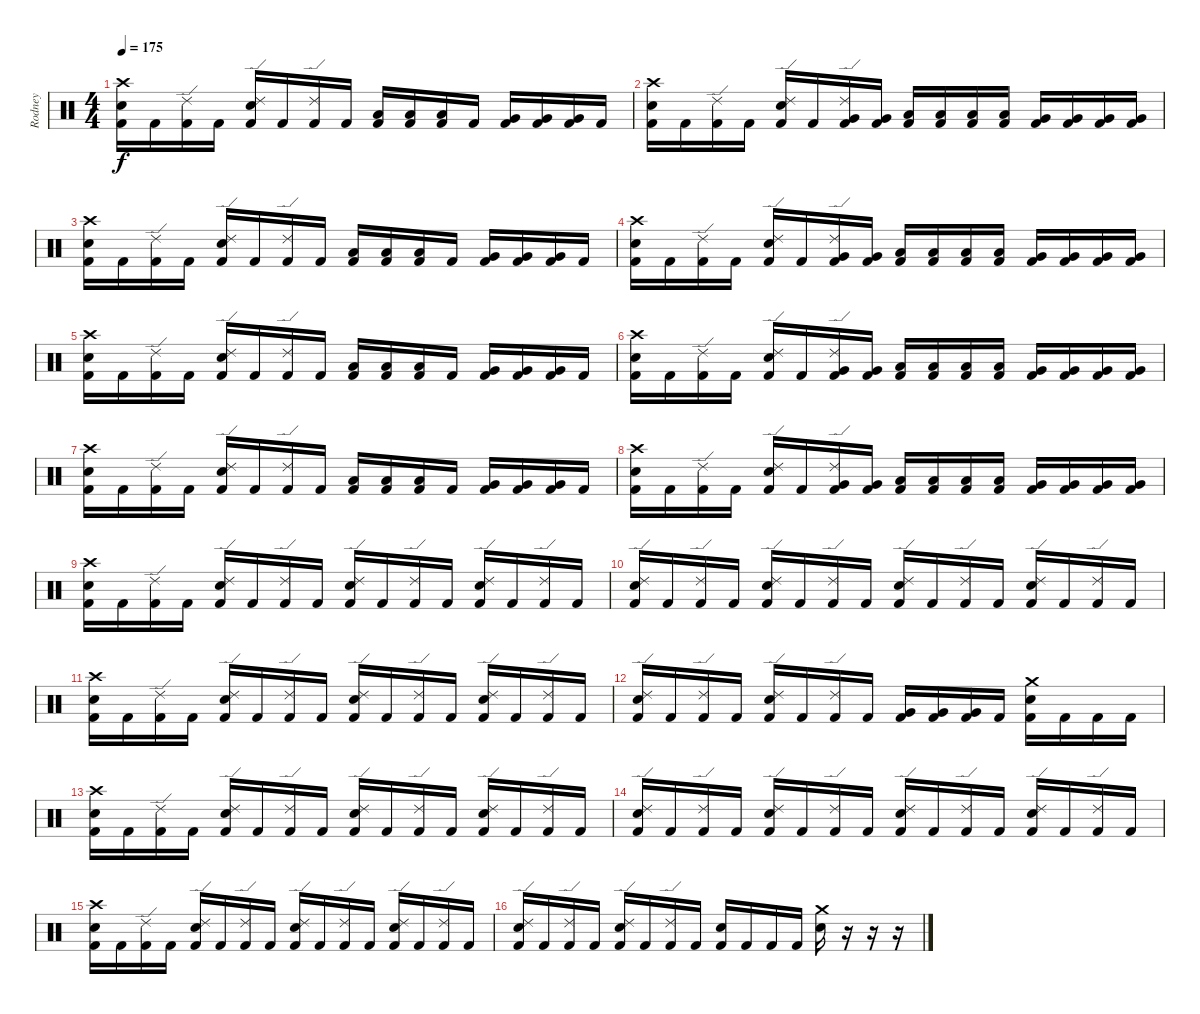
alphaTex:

\track ("Rodney" "Rodney") {instrument percussion}
\staff {score}
\articulation defaults
\ts (4 4)
\tempo 175
\clef neutral
\ks c
("Crash high (hit)" "Snare (hit) 2" "Kick (hit) 2").16{dy f} "Kick (hit) 2".16 ("Ride (edge) 2" "Kick (hit) 2").16 "Kick (hit) 2".16 ("Ride (edge) 2" "Snare (hit) 2" "Kick (hit) 2").16 "Kick (hit) 2".16 ("Ride (edge) 2" "Kick (hit) 2").16 "Kick (hit) 2".16 ("Low Tom (hit)" "Kick (hit) 2").16 ("Low Tom (hit)" "Kick (hit) 2").16 ("Low Tom (hit)" "Kick (hit) 2").16 "Kick (hit) 2".16 ("Very Low Tom (hit)" "Kick (hit) 2").16 ("Very Low Tom (hit)" "Kick (hit) 2").16 ("Very Low Tom (hit)" "Kick (hit) 2").16 "Kick (hit) 2".16 |
("Crash high (hit)" "Snare (hit) 2" "Kick (hit) 2").16 "Kick (hit) 2".16 ("Ride (edge) 2" "Kick (hit) 2").16 "Kick (hit) 2".16 ("Ride (edge) 2" "Snare (hit) 2" "Kick (hit) 2").16 "Kick (hit) 2".16 ("Ride (edge) 2" "Very Low Tom (hit)" "Kick (hit) 2").16 ("Very Low Tom (hit)" "Kick (hit) 2").16 ("Low Tom (hit)" "Kick (hit) 2").16 ("Low Tom (hit)" "Kick (hit) 2").16 ("Low Tom (hit)" "Kick (hit) 2").16 ("Low Tom (hit)" "Kick (hit) 2").16 ("Very Low Tom (hit)" "Kick (hit) 2").16 ("Very Low Tom (hit)" "Kick (hit) 2").16 ("Very Low Tom (hit)" "Kick (hit) 2").16 ("Very Low Tom (hit)" "Kick (hit) 2").16 |
("Crash high (hit)" "Snare (hit) 2" "Kick (hit) 2").16 "Kick (hit) 2".16 ("Ride (edge) 2" "Kick (hit) 2").16 "Kick (hit) 2".16 ("Ride (edge) 2" "Snare (hit) 2" "Kick (hit) 2").16 "Kick (hit) 2".16 ("Ride (edge) 2" "Kick (hit) 2").16 "Kick (hit) 2".16 ("Low Tom (hit)" "Kick (hit) 2").16 ("Low Tom (hit)" "Kick (hit) 2").16 ("Low Tom (hit)" "Kick (hit) 2").16 "Kick (hit) 2".16 ("Very Low Tom (hit)" "Kick (hit) 2").16 ("Very Low Tom (hit)" "Kick (hit) 2").16 ("Very Low Tom (hit)" "Kick (hit) 2").16 "Kick (hit) 2".16 |
("Crash high (hit)" "Snare (hit) 2" "Kick (hit) 2").16 "Kick (hit) 2".16 ("Ride (edge) 2" "Kick (hit) 2").16 "Kick (hit) 2".16 ("Ride (edge) 2" "Snare (hit) 2" "Kick (hit) 2").16 "Kick (hit) 2".16 ("Ride (edge) 2" "Very Low Tom (hit)" "Kick (hit) 2").16 ("Very Low Tom (hit)" "Kick (hit) 2").16 ("Low Tom (hit)" "Kick (hit) 2").16 ("Low Tom (hit)" "Kick (hit) 2").16 ("Low Tom (hit)" "Kick (hit) 2").16 ("Low Tom (hit)" "Kick (hit) 2").16 ("Very Low Tom (hit)" "Kick (hit) 2").16 ("Very Low Tom (hit)" "Kick (hit) 2").16 ("Very Low Tom (hit)" "Kick (hit) 2").16 ("Very Low Tom (hit)" "Kick (hit) 2").16 |
("Crash high (hit)" "Snare (hit) 2" "Kick (hit) 2").16 "Kick (hit) 2".16 ("Ride (edge) 2" "Kick (hit) 2").16 "Kick (hit) 2".16 ("Ride (edge) 2" "Snare (hit) 2" "Kick (hit) 2").16 "Kick (hit) 2".16 ("Ride (edge) 2" "Kick (hit) 2").16 "Kick (hit) 2".16 ("Low Tom (hit)" "Kick (hit) 2").16 ("Low Tom (hit)" "Kick (hit) 2").16 ("Low Tom (hit)" "Kick (hit) 2").16 "Kick (hit) 2".16 ("Very Low Tom (hit)" "Kick (hit) 2").16 ("Very Low Tom (hit)" "Kick (hit) 2").16 ("Very Low Tom (hit)" "Kick (hit) 2").16 "Kick (hit) 2".16 |
("Crash high (hit)" "Snare (hit) 2" "Kick (hit) 2").16 "Kick (hit) 2".16 ("Ride (edge) 2" "Kick (hit) 2").16 "Kick (hit) 2".16 ("Ride (edge) 2" "Snare (hit) 2" "Kick (hit) 2").16 "Kick (hit) 2".16 ("Ride (edge) 2" "Very Low Tom (hit)" "Kick (hit) 2").16 ("Very Low Tom (hit)" "Kick (hit) 2").16 ("Low Tom (hit)" "Kick (hit) 2").16 ("Low Tom (hit)" "Kick (hit) 2").16 ("Low Tom (hit)" "Kick (hit) 2").16 ("Low Tom (hit)" "Kick (hit) 2").16 ("Very Low Tom (hit)" "Kick (hit) 2").16 ("Very Low Tom (hit)" "Kick (hit) 2").16 ("Very Low Tom (hit)" "Kick (hit) 2").16 ("Very Low Tom (hit)" "Kick (hit) 2").16 |
("Crash high (hit)" "Snare (hit) 2" "Kick (hit) 2").16 "Kick (hit) 2".16 ("Ride (edge) 2" "Kick (hit) 2").16 "Kick (hit) 2".16 ("Ride (edge) 2" "Snare (hit) 2" "Kick (hit) 2").16 "Kick (hit) 2".16 ("Ride (edge) 2" "Kick (hit) 2").16 "Kick (hit) 2".16 ("Low Tom (hit)" "Kick (hit) 2").16 ("Low Tom (hit)" "Kick (hit) 2").16 ("Low Tom (hit)" "Kick (hit) 2").16 "Kick (hit) 2".16 ("Very Low Tom (hit)" "Kick (hit) 2").16 ("Very Low Tom (hit)" "Kick (hit) 2").16 ("Very Low Tom (hit)" "Kick (hit) 2").16 "Kick (hit) 2".16 |
("Crash high (hit)" "Snare (hit) 2" "Kick (hit) 2").16 "Kick (hit) 2".16 ("Ride (edge) 2" "Kick (hit) 2").16 "Kick (hit) 2".16 ("Ride (edge) 2" "Snare (hit) 2" "Kick (hit) 2").16 "Kick (hit) 2".16 ("Ride (edge) 2" "Very Low Tom (hit)" "Kick (hit) 2").16 ("Very Low Tom (hit)" "Kick (hit) 2").16 ("Low Tom (hit)" "Kick (hit) 2").16 ("Low Tom (hit)" "Kick (hit) 2").16 ("Low Tom (hit)" "Kick (hit) 2").16 ("Low Tom (hit)" "Kick (hit) 2").16 ("Very Low Tom (hit)" "Kick (hit) 2").16 ("Very Low Tom (hit)" "Kick (hit) 2").16 ("Very Low Tom (hit)" "Kick (hit) 2").16 ("Very Low Tom (hit)" "Kick (hit) 2").16 |
("Crash high (hit)" "Snare (hit) 2" "Kick (hit) 2").16 "Kick (hit) 2".16 ("Ride (edge) 2" "Kick (hit) 2").16 "Kick (hit) 2".16 ("Ride (edge) 2" "Snare (hit) 2" "Kick (hit) 2").16 "Kick (hit) 2".16 ("Ride (edge) 2" "Kick (hit) 2").16 "Kick (hit) 2".16 ("Ride (edge) 2" "Snare (hit) 2" "Kick (hit) 2").16 "Kick (hit) 2".16 ("Ride (edge) 2" "Kick (hit) 2").16 "Kick (hit) 2".16 ("Ride (edge) 2" "Snare (hit) 2" "Kick (hit) 2").16 "Kick (hit) 2".16 ("Ride (edge) 2" "Kick (hit) 2").16 "Kick (hit) 2".16 |
("Ride (edge) 2" "Snare (hit) 2" "Kick (hit) 2").16 "Kick (hit) 2".16 ("Ride (edge) 2" "Kick (hit) 2").16 "Kick (hit) 2".16 ("Ride (edge) 2" "Snare (hit) 2" "Kick (hit) 2").16 "Kick (hit) 2".16 ("Ride (edge) 2" "Kick (hit) 2").16 "Kick (hit) 2".16 ("Ride (edge) 2" "Snare (hit) 2" "Kick (hit) 2").16 "Kick (hit) 2".16 ("Ride (edge) 2" "Kick (hit) 2").16 "Kick (hit) 2".16 ("Ride (edge) 2" "Snare (hit) 2" "Kick (hit) 2").16 "Kick (hit) 2".16 ("Ride (edge) 2" "Kick (hit) 2").16 "Kick (hit) 2".16 |
("Crash high (hit)" "Snare (hit) 2" "Kick (hit) 2").16 "Kick (hit) 2".16 ("Ride (edge) 2" "Kick (hit) 2").16 "Kick (hit) 2".16 ("Ride (edge) 2" "Snare (hit) 2" "Kick (hit) 2").16 "Kick (hit) 2".16 ("Ride (edge) 2" "Kick (hit) 2").16 "Kick (hit) 2".16 ("Ride (edge) 2" "Snare (hit) 2" "Kick (hit) 2").16 "Kick (hit) 2".16 ("Ride (edge) 2" "Kick (hit) 2").16 "Kick (hit) 2".16 ("Ride (edge) 2" "Snare (hit) 2" "Kick (hit) 2").16 "Kick (hit) 2".16 ("Ride (edge) 2" "Kick (hit) 2").16 "Kick (hit) 2".16 |
("Ride (edge) 2" "Snare (hit) 2" "Kick (hit) 2").16 "Kick (hit) 2".16 ("Ride (edge) 2" "Kick (hit) 2").16 "Kick (hit) 2".16 ("Ride (edge) 2" "Snare (hit) 2" "Kick (hit) 2").16 "Kick (hit) 2".16 ("Ride (edge) 2" "Kick (hit) 2").16 "Kick (hit) 2".16 ("Very Low Tom (hit)" "Kick (hit) 2").16 ("Very Low Tom (hit)" "Kick (hit) 2").16 ("Very Low Tom (hit)" "Kick (hit) 2").16 "Kick (hit) 2".16 ("Crash medium (hit)" "Snare (hit) 2" "Kick (hit) 2").16 "Kick (hit) 2".16 "Kick (hit) 2".16 "Kick (hit) 2".16 |
("Crash high (hit)" "Snare (hit) 2" "Kick (hit) 2").16 "Kick (hit) 2".16 ("Ride (edge) 2" "Kick (hit) 2").16 "Kick (hit) 2".16 ("Ride (edge) 2" "Snare (hit) 2" "Kick (hit) 2").16 "Kick (hit) 2".16 ("Ride (edge) 2" "Kick (hit) 2").16 "Kick (hit) 2".16 ("Ride (edge) 2" "Snare (hit) 2" "Kick (hit) 2").16 "Kick (hit) 2".16 ("Ride (edge) 2" "Kick (hit) 2").16 "Kick (hit) 2".16 ("Ride (edge) 2" "Snare (hit) 2" "Kick (hit) 2").16 "Kick (hit) 2".16 ("Ride (edge) 2" "Kick (hit) 2").16 "Kick (hit) 2".16 |
("Ride (edge) 2" "Snare (hit) 2" "Kick (hit) 2").16 "Kick (hit) 2".16 ("Ride (edge) 2" "Kick (hit) 2").16 "Kick (hit) 2".16 ("Ride (edge) 2" "Snare (hit) 2" "Kick (hit) 2").16 "Kick (hit) 2".16 ("Ride (edge) 2" "Kick (hit) 2").16 "Kick (hit) 2".16 ("Ride (edge) 2" "Snare (hit) 2" "Kick (hit) 2").16 "Kick (hit) 2".16 ("Ride (edge) 2" "Kick (hit) 2").16 "Kick (hit) 2".16 ("Ride (edge) 2" "Snare (hit) 2" "Kick (hit) 2").16 "Kick (hit) 2".16 ("Ride (edge) 2" "Kick (hit) 2").16 "Kick (hit) 2".16 |
("Crash high (hit)" "Snare (hit) 2" "Kick (hit) 2").16 "Kick (hit) 2".16 ("Ride (edge) 2" "Kick (hit) 2").16 "Kick (hit) 2".16 ("Ride (edge) 2" "Snare (hit) 2" "Kick (hit) 2").16 "Kick (hit) 2".16 ("Ride (edge) 2" "Kick (hit) 2").16 "Kick (hit) 2".16 ("Ride (edge) 2" "Snare (hit) 2" "Kick (hit) 2").16 "Kick (hit) 2".16 ("Ride (edge) 2" "Kick (hit) 2").16 "Kick (hit) 2".16 ("Ride (edge) 2" "Snare (hit) 2" "Kick (hit) 2").16 "Kick (hit) 2".16 ("Ride (edge) 2" "Kick (hit) 2").16 "Kick (hit) 2".16 |
("Ride (edge) 2" "Snare (hit) 2" "Kick (hit) 2").16 "Kick (hit) 2".16 ("Ride (edge) 2" "Kick (hit) 2").16 "Kick (hit) 2".16 ("Ride (edge) 2" "Snare (hit) 2" "Kick (hit) 2").16 "Kick (hit) 2".16 ("Ride (edge) 2" "Kick (hit) 2").16 "Kick (hit) 2".16 ("Snare (hit) 2" "Kick (hit) 2").16 "Kick (hit) 2".16 "Kick (hit) 2".16 "Kick (hit) 2".16 ("Crash medium (hit)" "Snare (hit) 2").16 r.16 r.16 r.16
